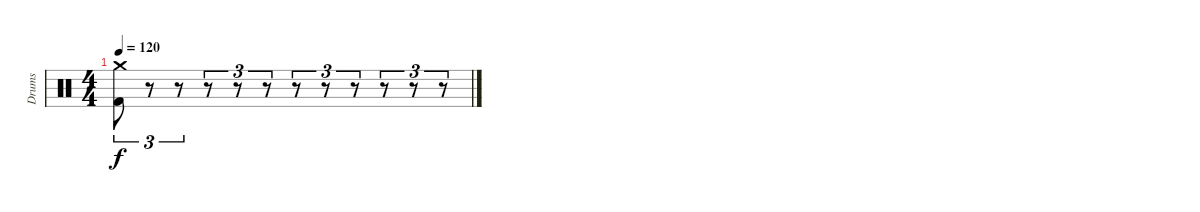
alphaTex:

\track ("Drums" "Drums") {instrument percussion}
\staff {score}
\articulation defaults
\ts (4 4)
\tempo 120
\clef neutral
\ks c
("Crash medium (hit)" "Kick (hit) 2").8{tu (3 2) dy f} r.8{tu (3 2)} r.8{tu (3 2)} r.8{tu (3 2)} r.8{tu (3 2)} r.8{tu (3 2)} r.8{tu (3 2)} r.8{tu (3 2)} r.8{tu (3 2)} r.8{tu (3 2)} r.8{tu (3 2)} r.8{tu (3 2)}
